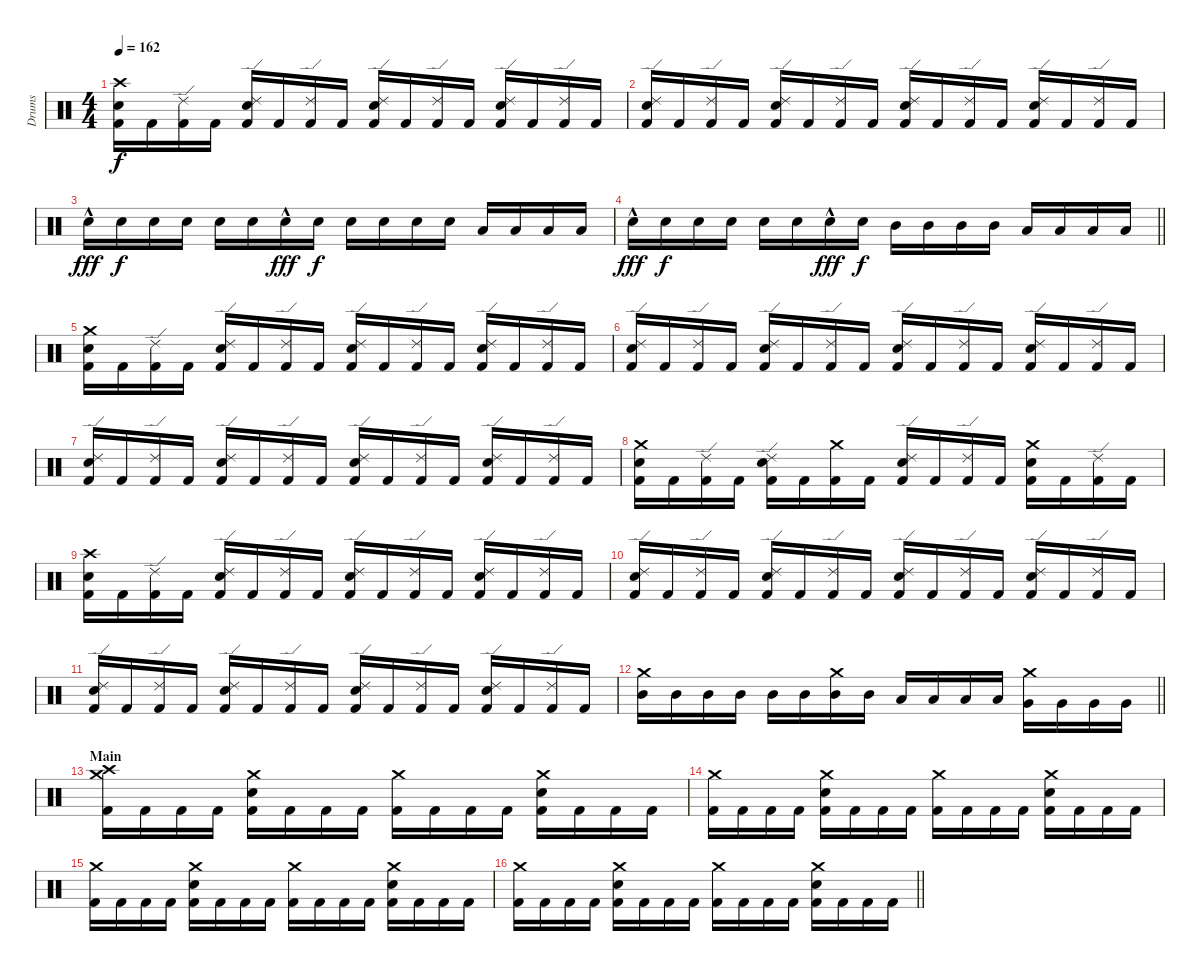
\track ("Drums" "Drums") {instrument percussion}
\staff {score}
\articulation defaults
\ts (4 4)
\tempo 162
\clef neutral
\ks c
("Kick (hit) 2" "Snare (hit) 2" "Crash high (hit)").16{dy f} "Kick (hit) 2".16 ("Kick (hit) 2" "Ride (edge) 2").16 "Kick (hit) 2".16 ("Kick (hit) 2" "Snare (hit) 2" "Ride (edge) 2").16 "Kick (hit) 2".16 ("Kick (hit) 2" "Ride (edge) 2").16 "Kick (hit) 2".16 ("Kick (hit) 2" "Snare (hit) 2" "Ride (edge) 2").16 "Kick (hit) 2".16 ("Kick (hit) 2" "Ride (edge) 2").16 "Kick (hit) 2".16 ("Kick (hit) 2" "Snare (hit) 2" "Ride (edge) 2").16 "Kick (hit) 2".16 ("Kick (hit) 2" "Ride (edge) 2").16 "Kick (hit) 2".16 |
("Kick (hit) 2" "Snare (hit) 2" "Ride (edge) 2").16 "Kick (hit) 2".16 ("Kick (hit) 2" "Ride (edge) 2").16 "Kick (hit) 2".16 ("Kick (hit) 2" "Snare (hit) 2" "Ride (edge) 2").16 "Kick (hit) 2".16 ("Kick (hit) 2" "Ride (edge) 2").16 "Kick (hit) 2".16 ("Kick (hit) 2" "Snare (hit) 2" "Ride (edge) 2").16 "Kick (hit) 2".16 ("Kick (hit) 2" "Ride (edge) 2").16 "Kick (hit) 2".16 ("Kick (hit) 2" "Snare (hit) 2" "Ride (edge) 2").16 "Kick (hit) 2".16 ("Kick (hit) 2" "Ride (edge) 2").16 "Kick (hit) 2".16 |
"Snare (hit) 2"{hac}.16{dy fff} "Snare (hit) 2".16{dy f} "Snare (hit) 2".16 "Snare (hit) 2".16 "Snare (hit) 2".16 "Snare (hit) 2".16 "Snare (hit) 2"{hac}.16{dy fff} "Snare (hit) 2".16{dy f} "Snare (hit) 2".16 "Snare (hit) 2".16 "Snare (hit) 2".16 "Snare (hit) 2".16 "Low Tom (hit)".16 "Low Tom (hit)".16 "Low Tom (hit)".16 "Low Tom (hit)".16 |
\barLineRight lightlight "Snare (hit) 2"{hac}.16{dy fff} "Snare (hit) 2".16{dy f} "Snare (hit) 2".16 "Snare (hit) 2".16 "Snare (hit) 2".16 "Snare (hit) 2".16 "Snare (hit) 2"{hac}.16{dy fff} "Snare (hit) 2".16{dy f} "Mid Tom (hit)".16 "Mid Tom (hit)".16 "Mid Tom (hit)".16 "Mid Tom (hit)".16 "Low Tom (hit)".16 "Low Tom (hit)".16 "Low Tom (hit)".16 "Low Tom (hit)".16
|
\section ("" "")
("Kick (hit) 2" "Snare (hit) 2" "Crash medium (hit)").16 "Kick (hit) 2".16 ("Kick (hit) 2" "Ride (edge) 2").16 "Kick (hit) 2".16 ("Kick (hit) 2" "Snare (hit) 2" "Ride (edge) 2").16 "Kick (hit) 2".16 ("Kick (hit) 2" "Ride (edge) 2").16 "Kick (hit) 2".16 ("Kick (hit) 2" "Snare (hit) 2" "Ride (edge) 2").16 "Kick (hit) 2".16 ("Kick (hit) 2" "Ride (edge) 2").16 "Kick (hit) 2".16 ("Kick (hit) 2" "Snare (hit) 2" "Ride (edge) 2").16 "Kick (hit) 2".16 ("Kick (hit) 2" "Ride (edge) 2").16 "Kick (hit) 2".16 |
("Kick (hit) 2" "Snare (hit) 2" "Ride (edge) 2").16 "Kick (hit) 2".16 ("Kick (hit) 2" "Ride (edge) 2").16 "Kick (hit) 2".16 ("Kick (hit) 2" "Snare (hit) 2" "Ride (edge) 2").16 "Kick (hit) 2".16 ("Kick (hit) 2" "Ride (edge) 2").16 "Kick (hit) 2".16 ("Kick (hit) 2" "Snare (hit) 2" "Ride (edge) 2").16 "Kick (hit) 2".16 ("Kick (hit) 2" "Ride (edge) 2").16 "Kick (hit) 2".16 ("Kick (hit) 2" "Snare (hit) 2" "Ride (edge) 2").16 "Kick (hit) 2".16 ("Kick (hit) 2" "Ride (edge) 2").16 "Kick (hit) 2".16 |
("Kick (hit) 2" "Snare (hit) 2" "Ride (edge) 2").16 "Kick (hit) 2".16 ("Kick (hit) 2" "Ride (edge) 2").16 "Kick (hit) 2".16 ("Kick (hit) 2" "Snare (hit) 2" "Ride (edge) 2").16 "Kick (hit) 2".16 ("Kick (hit) 2" "Ride (edge) 2").16 "Kick (hit) 2".16 ("Kick (hit) 2" "Snare (hit) 2" "Ride (edge) 2").16 "Kick (hit) 2".16 ("Kick (hit) 2" "Ride (edge) 2").16 "Kick (hit) 2".16 ("Kick (hit) 2" "Snare (hit) 2" "Ride (edge) 2").16 "Kick (hit) 2".16 ("Kick (hit) 2" "Ride (edge) 2").16 "Kick (hit) 2".16 |
("Kick (hit) 2" "Snare (hit) 2" "Crash medium (hit)").16 "Kick (hit) 2".16 ("Kick (hit) 2" "Ride (edge) 2").16 "Kick (hit) 2".16 ("Kick (hit) 2" "Snare (hit) 2" "Ride (edge) 2").16 "Kick (hit) 2".16 ("Kick (hit) 2" "Crash medium (hit)").16 "Kick (hit) 2".16 ("Kick (hit) 2" "Snare (hit) 2" "Ride (edge) 2").16 "Kick (hit) 2".16 ("Kick (hit) 2" "Ride (edge) 2").16 "Kick (hit) 2".16 ("Kick (hit) 2" "Snare (hit) 2" "Crash medium (hit)").16 "Kick (hit) 2".16 ("Kick (hit) 2" "Ride (edge) 2").16 "Kick (hit) 2".16 |
("Kick (hit) 2" "Snare (hit) 2" "Crash high (hit)").16 "Kick (hit) 2".16 ("Kick (hit) 2" "Ride (edge) 2").16 "Kick (hit) 2".16 ("Kick (hit) 2" "Snare (hit) 2" "Ride (edge) 2").16 "Kick (hit) 2".16 ("Kick (hit) 2" "Ride (edge) 2").16 "Kick (hit) 2".16 ("Kick (hit) 2" "Snare (hit) 2" "Ride (edge) 2").16 "Kick (hit) 2".16 ("Kick (hit) 2" "Ride (edge) 2").16 "Kick (hit) 2".16 ("Kick (hit) 2" "Snare (hit) 2" "Ride (edge) 2").16 "Kick (hit) 2".16 ("Kick (hit) 2" "Ride (edge) 2").16 "Kick (hit) 2".16 |
("Kick (hit) 2" "Snare (hit) 2" "Ride (edge) 2").16 "Kick (hit) 2".16 ("Kick (hit) 2" "Ride (edge) 2").16 "Kick (hit) 2".16 ("Kick (hit) 2" "Snare (hit) 2" "Ride (edge) 2").16 "Kick (hit) 2".16 ("Kick (hit) 2" "Ride (edge) 2").16 "Kick (hit) 2".16 ("Kick (hit) 2" "Snare (hit) 2" "Ride (edge) 2").16 "Kick (hit) 2".16 ("Kick (hit) 2" "Ride (edge) 2").16 "Kick (hit) 2".16 ("Kick (hit) 2" "Snare (hit) 2" "Ride (edge) 2").16 "Kick (hit) 2".16 ("Kick (hit) 2" "Ride (edge) 2").16 "Kick (hit) 2".16 |
("Kick (hit) 2" "Snare (hit) 2" "Ride (edge) 2").16 "Kick (hit) 2".16 ("Kick (hit) 2" "Ride (edge) 2").16 "Kick (hit) 2".16 ("Kick (hit) 2" "Snare (hit) 2" "Ride (edge) 2").16 "Kick (hit) 2".16 ("Kick (hit) 2" "Ride (edge) 2").16 "Kick (hit) 2".16 ("Kick (hit) 2" "Snare (hit) 2" "Ride (edge) 2").16 "Kick (hit) 2".16 ("Kick (hit) 2" "Ride (edge) 2").16 "Kick (hit) 2".16 ("Kick (hit) 2" "Snare (hit) 2" "Ride (edge) 2").16 "Kick (hit) 2".16 ("Kick (hit) 2" "Ride (edge) 2").16 "Kick (hit) 2".16 |
\barLineRight lightlight
("Mid Tom (hit)" "Crash medium (hit)").16 "Mid Tom (hit)".16 "Mid Tom (hit)".16 "Mid Tom (hit)".16 "Mid Tom (hit)".16 "Mid Tom (hit)".16 ("Mid Tom (hit)" "Crash medium (hit)").16 "Mid Tom (hit)".16 "Low Tom (hit)".16 "Low Tom (hit)".16 "Low Tom (hit)".16 "Low Tom (hit)".16 ("Very Low Tom (hit)" "Crash medium (hit)").16 "Very Low Tom (hit)".16 "Very Low Tom (hit)".16 "Very Low Tom (hit)".16 |
\section ("" "Main")
("Kick (hit) 2" "Crash medium (hit)" "Crash high (hit)").16 "Kick (hit) 2".16 "Kick (hit) 2".16 "Kick (hit) 2".16 ("Kick (hit) 2" "Snare (hit) 2" "Crash medium (hit)").16 "Kick (hit) 2".16 "Kick (hit) 2".16 "Kick (hit) 2".16 ("Kick (hit) 2" "Crash medium (hit)").16 "Kick (hit) 2".16 "Kick (hit) 2".16 "Kick (hit) 2".16 ("Kick (hit) 2" "Snare (hit) 2" "Crash medium (hit)").16 "Kick (hit) 2".16 "Kick (hit) 2".16 "Kick (hit) 2".16 |
("Kick (hit) 2" "Crash medium (hit)").16 "Kick (hit) 2".16 "Kick (hit) 2".16 "Kick (hit) 2".16 ("Kick (hit) 2" "Snare (hit) 2" "Crash medium (hit)").16 "Kick (hit) 2".16 "Kick (hit) 2".16 "Kick (hit) 2".16 ("Kick (hit) 2" "Crash medium (hit)").16 "Kick (hit) 2".16 "Kick (hit) 2".16 "Kick (hit) 2".16 ("Kick (hit) 2" "Snare (hit) 2" "Crash medium (hit)").16 "Kick (hit) 2".16 "Kick (hit) 2".16 "Kick (hit) 2".16 |
("Kick (hit) 2" "Crash medium (hit)").16 "Kick (hit) 2".16 "Kick (hit) 2".16 "Kick (hit) 2".16 ("Kick (hit) 2" "Snare (hit) 2" "Crash medium (hit)").16 "Kick (hit) 2".16 "Kick (hit) 2".16 "Kick (hit) 2".16 ("Kick (hit) 2" "Crash medium (hit)").16 "Kick (hit) 2".16 "Kick (hit) 2".16 "Kick (hit) 2".16 ("Kick (hit) 2" "Snare (hit) 2" "Crash medium (hit)").16 "Kick (hit) 2".16 "Kick (hit) 2".16 "Kick (hit) 2".16 |
\barLineRight lightlight
("Kick (hit) 2" "Crash medium (hit)").16 "Kick (hit) 2".16 "Kick (hit) 2".16 "Kick (hit) 2".16 ("Kick (hit) 2" "Snare (hit) 2" "Crash medium (hit)").16 "Kick (hit) 2".16 "Kick (hit) 2".16 "Kick (hit) 2".16 ("Kick (hit) 2" "Crash medium (hit)").16 "Kick (hit) 2".16 "Kick (hit) 2".16 "Kick (hit) 2".16 ("Kick (hit) 2" "Snare (hit) 2" "Crash medium (hit)").16 "Kick (hit) 2".16 "Kick (hit) 2".16 "Kick (hit) 2".16
